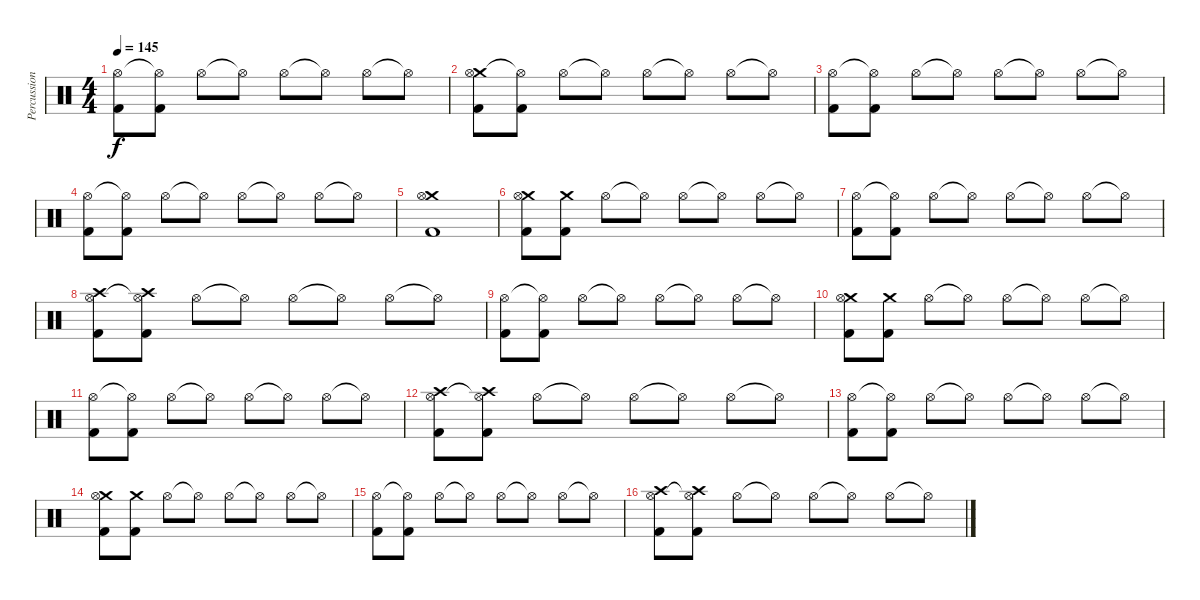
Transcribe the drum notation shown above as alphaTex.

\track ("Percussioni" "Percussion") {instrument percussion}
\staff {score}
\articulation defaults
\ts (4 4)
\tempo 145
\clef neutral
\ks c
("Hi-Hat (open)" "Kick (hit) 2").8{dy f} ("Hi-Hat (open)"{t} "Kick (hit) 2").8 "Hi-Hat (open)".8 "Hi-Hat (open)"{t}.8 "Hi-Hat (open)".8 "Hi-Hat (open)"{t}.8 "Hi-Hat (open)".8 "Hi-Hat (open)"{t}.8 |
("Crash medium (hit)" "Hi-Hat (open)" "Kick (hit) 2").8 ("Hi-Hat (open)"{t} "Kick (hit) 2").8 "Hi-Hat (open)".8 "Hi-Hat (open)"{t}.8 "Hi-Hat (open)".8 "Hi-Hat (open)"{t}.8 "Hi-Hat (open)".8 "Hi-Hat (open)"{t}.8 |
("Hi-Hat (open)" "Kick (hit) 2").8 ("Hi-Hat (open)"{t} "Kick (hit) 2").8 "Hi-Hat (open)".8 "Hi-Hat (open)"{t}.8 "Hi-Hat (open)".8 "Hi-Hat (open)"{t}.8 "Hi-Hat (open)".8 "Hi-Hat (open)"{t}.8 |
("Hi-Hat (open)" "Kick (hit) 2").8 ("Hi-Hat (open)"{t} "Kick (hit) 2").8 "Hi-Hat (open)".8 "Hi-Hat (open)"{t}.8 "Hi-Hat (open)".8 "Hi-Hat (open)"{t}.8 "Hi-Hat (open)".8 "Hi-Hat (open)"{t}.8 |
("Crash medium (hit)" "Hi-Hat (open)" "Kick (hit) 2").1 |
("Crash medium (hit)" "Hi-Hat (open)" "Kick (hit) 2").8 ("Crash medium (hit)" "Kick (hit) 2").8 "Hi-Hat (open)".8 "Hi-Hat (open)"{t}.8 "Hi-Hat (open)".8 "Hi-Hat (open)"{t}.8 "Hi-Hat (open)".8 "Hi-Hat (open)"{t}.8 |
("Hi-Hat (open)" "Kick (hit) 2").8 ("Hi-Hat (open)"{t} "Kick (hit) 2").8 "Hi-Hat (open)".8 "Hi-Hat (open)"{t}.8 "Hi-Hat (open)".8 "Hi-Hat (open)"{t}.8 "Hi-Hat (open)".8 "Hi-Hat (open)"{t}.8 |
("Crash high (hit)" "Hi-Hat (open)" "Kick (hit) 2").8 ("Crash high (hit)" "Hi-Hat (open)"{t} "Kick (hit) 2").8 "Hi-Hat (open)".8 "Hi-Hat (open)"{t}.8 "Hi-Hat (open)".8 "Hi-Hat (open)"{t}.8 "Hi-Hat (open)".8 "Hi-Hat (open)"{t}.8 |
("Hi-Hat (open)" "Kick (hit) 2").8 ("Hi-Hat (open)"{t} "Kick (hit) 2").8 "Hi-Hat (open)".8 "Hi-Hat (open)"{t}.8 "Hi-Hat (open)".8 "Hi-Hat (open)"{t}.8 "Hi-Hat (open)".8 "Hi-Hat (open)"{t}.8 |
("Crash medium (hit)" "Hi-Hat (open)" "Kick (hit) 2").8 ("Crash medium (hit)" "Kick (hit) 2").8 "Hi-Hat (open)".8 "Hi-Hat (open)"{t}.8 "Hi-Hat (open)".8 "Hi-Hat (open)"{t}.8 "Hi-Hat (open)".8 "Hi-Hat (open)"{t}.8 |
("Hi-Hat (open)" "Kick (hit) 2").8 ("Hi-Hat (open)"{t} "Kick (hit) 2").8 "Hi-Hat (open)".8 "Hi-Hat (open)"{t}.8 "Hi-Hat (open)".8 "Hi-Hat (open)"{t}.8 "Hi-Hat (open)".8 "Hi-Hat (open)"{t}.8 |
("Crash high (hit)" "Hi-Hat (open)" "Kick (hit) 2").8 ("Crash high (hit)" "Hi-Hat (open)"{t} "Kick (hit) 2").8 "Hi-Hat (open)".8 "Hi-Hat (open)"{t}.8 "Hi-Hat (open)".8 "Hi-Hat (open)"{t}.8 "Hi-Hat (open)".8 "Hi-Hat (open)"{t}.8 |
("Hi-Hat (open)" "Kick (hit) 2").8 ("Hi-Hat (open)"{t} "Kick (hit) 2").8 "Hi-Hat (open)".8 "Hi-Hat (open)"{t}.8 "Hi-Hat (open)".8 "Hi-Hat (open)"{t}.8 "Hi-Hat (open)".8 "Hi-Hat (open)"{t}.8 |
("Crash medium (hit)" "Hi-Hat (open)" "Kick (hit) 2").8 ("Crash medium (hit)" "Kick (hit) 2").8 "Hi-Hat (open)".8 "Hi-Hat (open)"{t}.8 "Hi-Hat (open)".8 "Hi-Hat (open)"{t}.8 "Hi-Hat (open)".8 "Hi-Hat (open)"{t}.8 |
("Hi-Hat (open)" "Kick (hit) 2").8 ("Hi-Hat (open)"{t} "Kick (hit) 2").8 "Hi-Hat (open)".8 "Hi-Hat (open)"{t}.8 "Hi-Hat (open)".8 "Hi-Hat (open)"{t}.8 "Hi-Hat (open)".8 "Hi-Hat (open)"{t}.8 |
("Crash high (hit)" "Hi-Hat (open)" "Kick (hit) 2").8 ("Crash high (hit)" "Hi-Hat (open)"{t} "Kick (hit) 2").8 "Hi-Hat (open)".8 "Hi-Hat (open)"{t}.8 "Hi-Hat (open)".8 "Hi-Hat (open)"{t}.8 "Hi-Hat (open)".8 "Hi-Hat (open)"{t}.8
